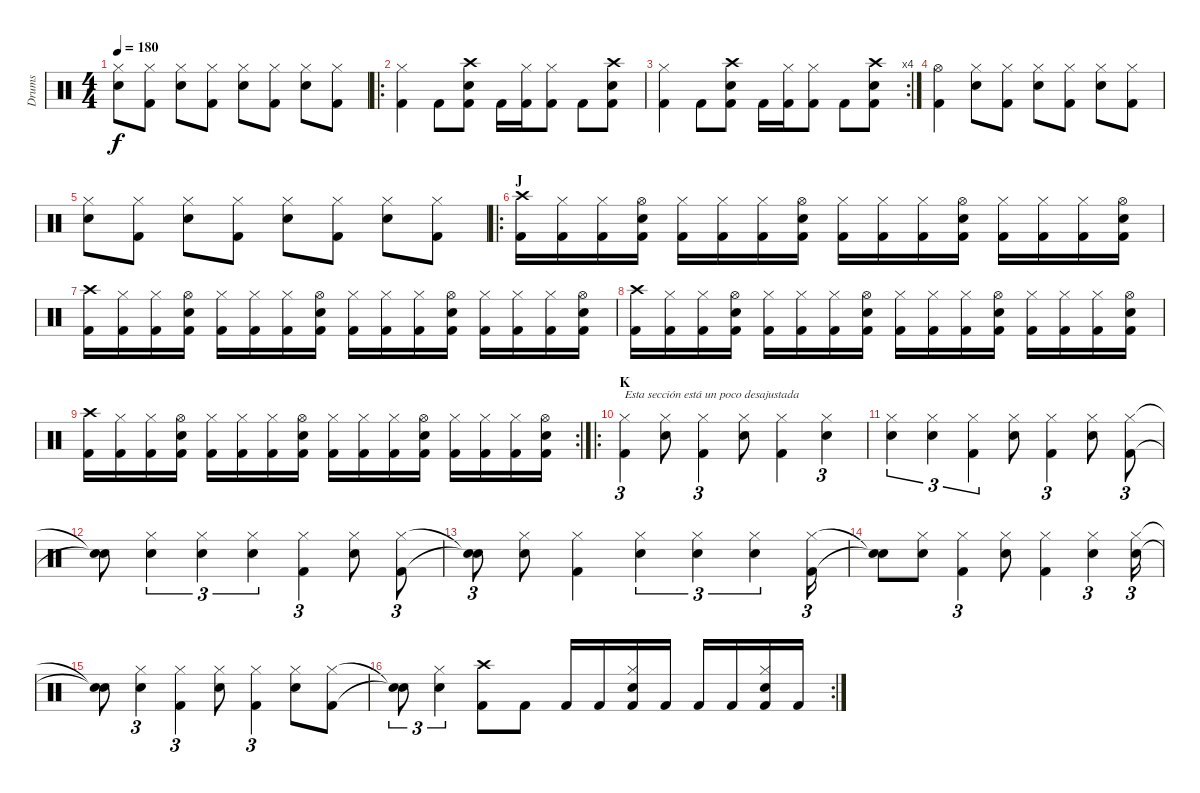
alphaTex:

\track ("Drums" "Drums") {instrument percussion}
\staff {score}
\articulation defaults
\ts (4 4)
\tempo 180
\clef neutral
\ks c
("Snare (hit) 2" "Hi-Hat (closed)").8{dy f} ("Kick (hit) 2" "Hi-Hat (closed)").8 ("Snare (hit) 2" "Hi-Hat (closed)").8 ("Kick (hit) 2" "Hi-Hat (closed)").8 ("Snare (hit) 2" "Hi-Hat (closed)").8 ("Kick (hit) 2" "Hi-Hat (closed)").8 ("Snare (hit) 2" "Hi-Hat (closed)").8 ("Kick (hit) 2" "Hi-Hat (closed)").8 |
\ro
("Hi-Hat (closed)" "Kick (hit) 2").4 "Kick (hit) 2".8 ("Crash high (hit)" "Snare (hit) 2" "Kick (hit) 2").8 "Kick (hit) 2".16 ("Hi-Hat (closed)" "Kick (hit) 2").16 ("Hi-Hat (closed)" "Kick (hit) 2").8 "Kick (hit) 2".8 ("Snare (hit) 2" "Crash high (hit)" "Kick (hit) 2").8 |
\rc 4
("Hi-Hat (closed)" "Kick (hit) 2").4 "Kick (hit) 2".8 ("Crash high (hit)" "Snare (hit) 2" "Kick (hit) 2").8 "Kick (hit) 2".16 ("Hi-Hat (closed)" "Kick (hit) 2").16 ("Hi-Hat (closed)" "Kick (hit) 2").8 "Kick (hit) 2".8 ("Snare (hit) 2" "Crash high (hit)" "Kick (hit) 2").8 |
("Hi-Hat (open)" "Kick (hit) 2").4 ("Snare (hit) 2" "Hi-Hat (closed)").8 ("Hi-Hat (closed)" "Kick (hit) 2").8 ("Snare (hit) 2" "Hi-Hat (closed)").8 ("Kick (hit) 2" "Hi-Hat (closed)").8 ("Snare (hit) 2" "Hi-Hat (closed)").8 ("Kick (hit) 2" "Hi-Hat (closed)").8 |
("Snare (hit) 2" "Hi-Hat (closed)").8 ("Kick (hit) 2" "Hi-Hat (closed)").8 ("Snare (hit) 2" "Hi-Hat (closed)").8 ("Kick (hit) 2" "Hi-Hat (closed)").8 ("Snare (hit) 2" "Hi-Hat (closed)").8 ("Kick (hit) 2" "Hi-Hat (closed)").8 ("Snare (hit) 2" "Hi-Hat (closed)").8 ("Kick (hit) 2" "Hi-Hat (closed)").8 |
\ro
\section ("" "J")
("Crash high (hit)" "Kick (hit) 2").16 ("Hi-Hat (closed)" "Kick (hit) 2").16 ("Hi-Hat (closed)" "Kick (hit) 2").16 ("Hi-Hat (open)" "Snare (hit) 2" "Kick (hit) 2").16 ("Hi-Hat (closed)" "Kick (hit) 2").16 ("Hi-Hat (closed)" "Kick (hit) 2").16 ("Hi-Hat (closed)" "Kick (hit) 2").16 ("Hi-Hat (open)" "Snare (hit) 2" "Kick (hit) 2").16 ("Hi-Hat (closed)" "Kick (hit) 2").16 ("Hi-Hat (closed)" "Kick (hit) 2").16 ("Hi-Hat (closed)" "Kick (hit) 2").16 ("Hi-Hat (open)" "Snare (hit) 2" "Kick (hit) 2").16 ("Hi-Hat (closed)" "Kick (hit) 2").16 ("Hi-Hat (closed)" "Kick (hit) 2").16 ("Hi-Hat (closed)" "Kick (hit) 2").16 ("Hi-Hat (open)" "Snare (hit) 2" "Kick (hit) 2").16 |
("Crash high (hit)" "Kick (hit) 2").16 ("Hi-Hat (closed)" "Kick (hit) 2").16 ("Hi-Hat (closed)" "Kick (hit) 2").16 ("Hi-Hat (open)" "Snare (hit) 2" "Kick (hit) 2").16 ("Hi-Hat (closed)" "Kick (hit) 2").16 ("Hi-Hat (closed)" "Kick (hit) 2").16 ("Hi-Hat (closed)" "Kick (hit) 2").16 ("Hi-Hat (open)" "Snare (hit) 2" "Kick (hit) 2").16 ("Hi-Hat (closed)" "Kick (hit) 2").16 ("Hi-Hat (closed)" "Kick (hit) 2").16 ("Hi-Hat (closed)" "Kick (hit) 2").16 ("Hi-Hat (open)" "Snare (hit) 2" "Kick (hit) 2").16 ("Hi-Hat (closed)" "Kick (hit) 2").16 ("Hi-Hat (closed)" "Kick (hit) 2").16 ("Hi-Hat (closed)" "Kick (hit) 2").16 ("Hi-Hat (open)" "Snare (hit) 2" "Kick (hit) 2").16 |
("Crash high (hit)" "Kick (hit) 2").16 ("Hi-Hat (closed)" "Kick (hit) 2").16 ("Hi-Hat (closed)" "Kick (hit) 2").16 ("Hi-Hat (open)" "Snare (hit) 2" "Kick (hit) 2").16 ("Hi-Hat (closed)" "Kick (hit) 2").16 ("Hi-Hat (closed)" "Kick (hit) 2").16 ("Hi-Hat (closed)" "Kick (hit) 2").16 ("Hi-Hat (open)" "Snare (hit) 2" "Kick (hit) 2").16 ("Hi-Hat (closed)" "Kick (hit) 2").16 ("Hi-Hat (closed)" "Kick (hit) 2").16 ("Hi-Hat (closed)" "Kick (hit) 2").16 ("Hi-Hat (open)" "Snare (hit) 2" "Kick (hit) 2").16 ("Hi-Hat (closed)" "Kick (hit) 2").16 ("Hi-Hat (closed)" "Kick (hit) 2").16 ("Hi-Hat (closed)" "Kick (hit) 2").16 ("Hi-Hat (open)" "Snare (hit) 2" "Kick (hit) 2").16 |
\rc 2
("Crash high (hit)" "Kick (hit) 2").16 ("Hi-Hat (closed)" "Kick (hit) 2").16 ("Hi-Hat (closed)" "Kick (hit) 2").16 ("Hi-Hat (open)" "Snare (hit) 2" "Kick (hit) 2").16 ("Hi-Hat (closed)" "Kick (hit) 2").16 ("Hi-Hat (closed)" "Kick (hit) 2").16 ("Hi-Hat (closed)" "Kick (hit) 2").16 ("Hi-Hat (open)" "Snare (hit) 2" "Kick (hit) 2").16 ("Hi-Hat (closed)" "Kick (hit) 2").16 ("Hi-Hat (closed)" "Kick (hit) 2").16 ("Hi-Hat (closed)" "Kick (hit) 2").16 ("Hi-Hat (open)" "Snare (hit) 2" "Kick (hit) 2").16 ("Hi-Hat (closed)" "Kick (hit) 2").16 ("Hi-Hat (closed)" "Kick (hit) 2").16 ("Hi-Hat (closed)" "Kick (hit) 2").16 ("Hi-Hat (open)" "Snare (hit) 2" "Kick (hit) 2").16 |
\ro
\section ("" "K")
("Hi-Hat (closed)" "Kick (hit) 2").4{tu (3 2) txt "Esta sección está un poco desajustada"} ("Snare (hit) 2" "Hi-Hat (closed)").8 ("Hi-Hat (closed)" "Kick (hit) 2").4{tu (3 2)} ("Hi-Hat (closed)" "Snare (hit) 2").8 ("Hi-Hat (closed)" "Kick (hit) 2").4 ("Hi-Hat (closed)" "Snare (hit) 2").4{tu (3 2)} |
("Snare (hit) 2" "Hi-Hat (closed)").4{tu (3 2)} ("Hi-Hat (closed)" "Snare (hit) 2").4{tu (3 2)} ("Kick (hit) 2" "Hi-Hat (closed)").4{tu (3 2)} ("Snare (hit) 2" "Hi-Hat (closed)").8 ("Hi-Hat (closed)" "Kick (hit) 2").4{tu (3 2)} ("Hi-Hat (closed)" "Snare (hit) 2").8 ("Kick (hit) 2" "Hi-Hat (closed)").8{tu (3 2)} |
("Snare (hit)"{t} "Snare (hit)"{t}).8 ("Hi-Hat (closed)" "Snare (hit) 2").4{tu (3 2)} ("Hi-Hat (closed)" "Snare (hit) 2").4{tu (3 2)} ("Hi-Hat (closed)" "Snare (hit) 2").4{tu (3 2)} ("Hi-Hat (closed)" "Kick (hit) 2").4{tu (3 2)} ("Snare (hit) 2" "Hi-Hat (closed)").8 ("Hi-Hat (closed)" "Kick (hit) 2").8{tu (3 2)} |
("Snare (hit)"{t} "Snare (hit)"{t}).8{tu (3 2)} ("Hi-Hat (closed)" "Snare (hit) 2").8 ("Hi-Hat (closed)" "Kick (hit) 2").4 ("Hi-Hat (closed)" "Snare (hit) 2").4{tu (3 2)} ("Hi-Hat (closed)" "Snare (hit) 2").4{tu (3 2)} ("Hi-Hat (closed)" "Snare (hit) 2").4{tu (3 2)} ("Kick (hit) 2" "Hi-Hat (closed)").16{tu (3 2)} |
("Snare (hit)"{t} "Snare (hit)"{t}).8 ("Hi-Hat (closed)" "Snare (hit) 2").8 ("Hi-Hat (closed)" "Kick (hit) 2").4{tu (3 2)} ("Hi-Hat (closed)" "Snare (hit) 2").8 ("Kick (hit) 2" "Hi-Hat (closed)").4 ("Hi-Hat (closed)" "Snare (hit) 2").4{tu (3 2)} ("Hi-Hat (closed)" "Snare (hit) 2").16{tu (3 2)} |
("Snare (hit)"{t} "Snare (hit)"{t}).8 ("Snare (hit) 2" "Hi-Hat (closed)").4{tu (3 2)} ("Kick (hit) 2" "Hi-Hat (closed)").4{tu (3 2)} ("Hi-Hat (closed)" "Snare (hit) 2").8 ("Kick (hit) 2" "Hi-Hat (closed)").4{tu (3 2)} ("Hi-Hat (closed)" "Snare (hit) 2").8 ("Hi-Hat (closed)" "Kick (hit) 2").8 |
\rc 2
("Snare (hit)"{t} "Snare (hit)"{t}).8{tu (3 2)} ("Hi-Hat (closed)" "Snare (hit) 2").4{tu (3 2)} ("Kick (hit) 2" "Crash high (hit)").8 "Kick (hit) 2".8 "Kick (hit) 2".16 "Kick (hit) 2".16 ("Hi-Hat (closed)" "Snare (hit) 2" "Kick (hit) 2").16 "Kick (hit) 2".16 "Kick (hit) 2".16 "Kick (hit) 2".16 ("Hi-Hat (closed)" "Snare (hit) 2" "Kick (hit) 2").16 "Kick (hit) 2".16
